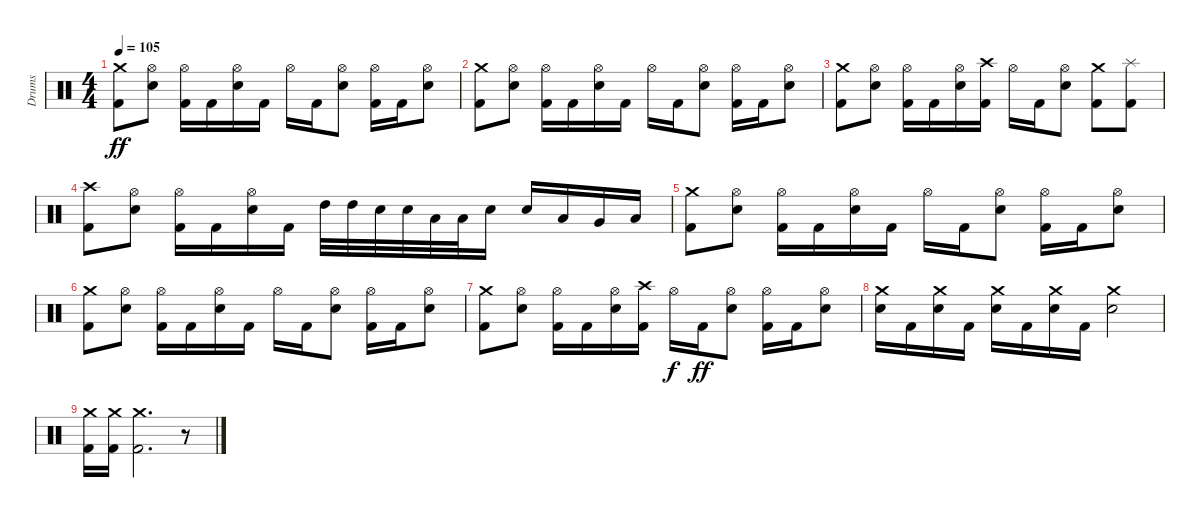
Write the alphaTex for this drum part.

\track ("Drums" "Drums") {instrument percussion}
\staff {score}
\articulation defaults
\ts (4 4)
\tempo 105
\clef neutral
\ks c
("Crash medium (hit)" "Kick (hit) 2").8{dy ff} ("Hi-Hat (open)" "Electric Snare (hit)").8 ("Hi-Hat (open)" "Kick (hit) 2").16 "Kick (hit) 2".16 ("Hi-Hat (open)" "Electric Snare (hit)").16 "Kick (hit) 2".16 "Hi-Hat (open)".16 "Kick (hit) 2".16 ("Hi-Hat (open)" "Electric Snare (hit)").8 ("Hi-Hat (open)" "Kick (hit) 2").16 "Kick (hit) 2".16 ("Hi-Hat (open)" "Electric Snare (hit)").8 |
("Crash medium (hit)" "Kick (hit) 2").8 ("Hi-Hat (open)" "Electric Snare (hit)").8 ("Hi-Hat (open)" "Kick (hit) 2").16 "Kick (hit) 2".16 ("Hi-Hat (open)" "Electric Snare (hit)").16 "Kick (hit) 2".16 "Hi-Hat (open)".16 "Kick (hit) 2".16 ("Hi-Hat (open)" "Electric Snare (hit)").8 ("Hi-Hat (open)" "Kick (hit) 2").16 "Kick (hit) 2".16 ("Hi-Hat (open)" "Electric Snare (hit)").8 |
("Crash medium (hit)" "Kick (hit) 2").8 ("Hi-Hat (open)" "Electric Snare (hit)").8 ("Hi-Hat (open)" "Kick (hit) 2").16 "Kick (hit) 2".16 ("Hi-Hat (open)" "Electric Snare (hit)").16 ("Crash high (hit)" "Kick (hit) 2").16 "Hi-Hat (open)".16 "Kick (hit) 2".16 ("Hi-Hat (open)" "Electric Snare (hit)").8 ("Crash medium (hit)" "Kick (hit) 2").8 ("Splash (hit)" "Kick (hit) 2").8 |
("Crash high (hit)" "Kick (hit) 2").8 ("Hi-Hat (open)" "Electric Snare (hit)").8 ("Hi-Hat (open)" "Kick (hit) 2").16 "Kick (hit) 2".16 ("Hi-Hat (open)" "Electric Snare (hit)").16 "Kick (hit) 2".16 "High Tom (hit)".32 "High Tom (hit)".32 "Electric Snare (hit)".32 "Electric Snare (hit)".32 "Low Tom (hit)".32 "Low Tom (hit)".32 "Electric Snare (hit)".16 "Electric Snare (hit)".16 "Low Tom (hit)".16 "Very Low Tom (hit)".16 "Low Floor Tom (hit)".16 |
("Crash medium (hit)" "Kick (hit) 2").8 ("Hi-Hat (open)" "Electric Snare (hit)").8 ("Hi-Hat (open)" "Kick (hit) 2").16 "Kick (hit) 2".16 ("Hi-Hat (open)" "Electric Snare (hit)").16 "Kick (hit) 2".16 "Hi-Hat (open)".16 "Kick (hit) 2".16 ("Hi-Hat (open)" "Electric Snare (hit)").8 ("Hi-Hat (open)" "Kick (hit) 2").16 "Kick (hit) 2".16 ("Hi-Hat (open)" "Electric Snare (hit)").8 |
("Crash medium (hit)" "Kick (hit) 2").8 ("Hi-Hat (open)" "Electric Snare (hit)").8 ("Hi-Hat (open)" "Kick (hit) 2").16 "Kick (hit) 2".16 ("Hi-Hat (open)" "Electric Snare (hit)").16 "Kick (hit) 2".16 "Hi-Hat (open)".16 "Kick (hit) 2".16 ("Hi-Hat (open)" "Electric Snare (hit)").8 ("Hi-Hat (open)" "Kick (hit) 2").16 "Kick (hit) 2".16 ("Hi-Hat (open)" "Electric Snare (hit)").8 |
("Crash medium (hit)" "Kick (hit) 2").8 ("Hi-Hat (open)" "Electric Snare (hit)").8 ("Hi-Hat (open)" "Kick (hit) 2").16 "Kick (hit) 2".16 ("Hi-Hat (open)" "Electric Snare (hit)").16 ("Crash high (hit)" "Kick (hit) 2").16 "Hi-Hat (open)".16{dy f} "Kick (hit) 2".16{dy ff} ("Hi-Hat (open)" "Electric Snare (hit)").8 ("Hi-Hat (open)" "Kick (hit) 2").16 "Kick (hit) 2".16 ("Hi-Hat (open)" "Electric Snare (hit)").8 |
("Crash medium (hit)" "Electric Snare (hit)").16 "Kick (hit) 2".16 ("Crash medium (hit)" "Electric Snare (hit)").16 "Kick (hit) 2".16 ("Crash medium (hit)" "Electric Snare (hit)").16 "Kick (hit) 2".16 ("Crash medium (hit)" "Electric Snare (hit)").16 "Kick (hit) 2".16 ("Crash medium (hit)" "Electric Snare (hit)").2 |
("Crash medium (hit)" "Kick (hit) 2").16 ("Crash medium (hit)" "Kick (hit) 2").16 ("Crash medium (hit)" "Kick (hit) 2").2{d} r.8
